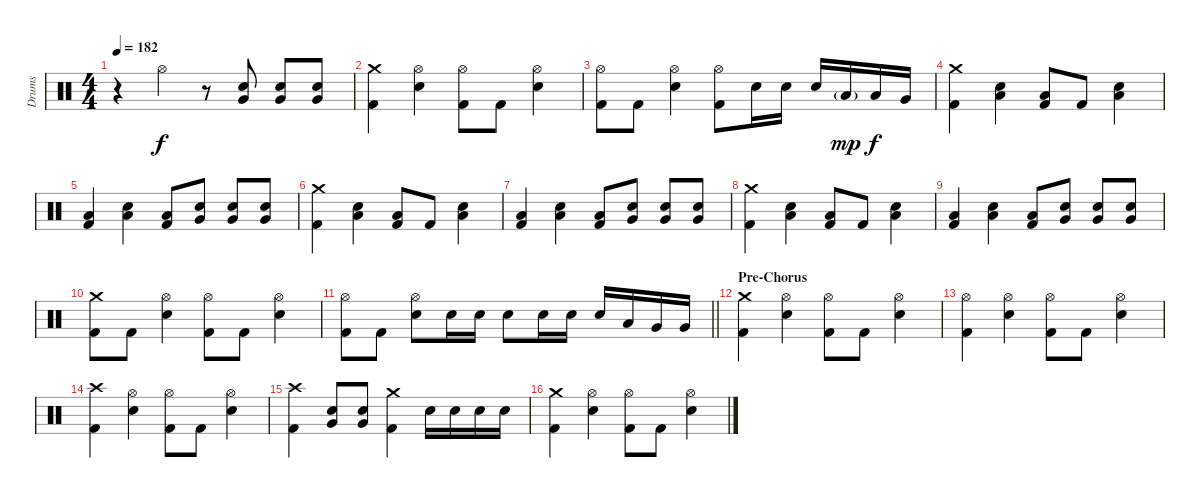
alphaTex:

\track ("Drums" "Drums") {instrument percussion}
\staff {score}
\articulation defaults
\ts (4 4)
\tempo 182
\clef neutral
\ks c
r.4{dy f} "Hi-Hat (open)".4 r.8 ("Very Low Tom (hit)" "Electric Snare (hit)").8 ("Very Low Tom (hit)" "Electric Snare (hit)").8 ("Very Low Tom (hit)" "Electric Snare (hit)").8 |
("Crash medium (hit)" "Kick (hit) 2").4 ("Hi-Hat (open)" "Electric Snare (hit)").4 ("Hi-Hat (open)" "Kick (hit) 2").8 "Kick (hit) 2".8 ("Hi-Hat (open)" "Electric Snare (hit)").4 |
("Hi-Hat (open)" "Kick (hit) 2").8 "Kick (hit) 2".8 ("Hi-Hat (open)" "Electric Snare (hit)").4 ("Hi-Hat (open)" "Kick (hit) 2").8 "Electric Snare (hit)".16 "Electric Snare (hit)".16 "Electric Snare (hit)".16 "Low Tom (hit)"{g}.16{dy mp} "Low Tom (hit)".16{dy f} "Very Low Tom (hit)".16 |
("Crash medium (hit)" "Kick (hit) 2").4 ("Low Floor Tom (hit)" "Electric Snare (hit)").4 ("Low Floor Tom (hit)" "Kick (hit) 2").8 "Kick (hit) 2".8 ("Low Floor Tom (hit)" "Electric Snare (hit)").4 |
("Low Floor Tom (hit)" "Kick (hit) 2").4 ("Low Floor Tom (hit)" "Electric Snare (hit)").4 ("Low Floor Tom (hit)" "Kick (hit) 2").8 ("Very Low Tom (hit)" "Electric Snare (hit)").8 ("Very Low Tom (hit)" "Electric Snare (hit)").8 ("Very Low Tom (hit)" "Electric Snare (hit)").8 |
("Crash medium (hit)" "Kick (hit) 2").4 ("Low Floor Tom (hit)" "Electric Snare (hit)").4 ("Low Floor Tom (hit)" "Kick (hit) 2").8 "Kick (hit) 2".8 ("Low Floor Tom (hit)" "Electric Snare (hit)").4 |
("Low Floor Tom (hit)" "Kick (hit) 2").4 ("Low Floor Tom (hit)" "Electric Snare (hit)").4 ("Low Floor Tom (hit)" "Kick (hit) 2").8 ("Very Low Tom (hit)" "Electric Snare (hit)").8 ("Very Low Tom (hit)" "Electric Snare (hit)").8 ("Very Low Tom (hit)" "Electric Snare (hit)").8 |
("Crash medium (hit)" "Kick (hit) 2").4 ("Low Floor Tom (hit)" "Electric Snare (hit)").4 ("Low Floor Tom (hit)" "Kick (hit) 2").8 "Kick (hit) 2".8 ("Low Floor Tom (hit)" "Electric Snare (hit)").4 |
("Low Floor Tom (hit)" "Kick (hit) 2").4 ("Low Floor Tom (hit)" "Electric Snare (hit)").4 ("Low Floor Tom (hit)" "Kick (hit) 2").8 ("Very Low Tom (hit)" "Electric Snare (hit)").8 ("Very Low Tom (hit)" "Electric Snare (hit)").8 ("Very Low Tom (hit)" "Electric Snare (hit)").8 |
("Crash medium (hit)" "Kick (hit) 2").8 "Kick (hit) 2".8 ("Hi-Hat (open)" "Electric Snare (hit)").4 ("Hi-Hat (open)" "Kick (hit) 2").8 "Kick (hit) 2".8 ("Hi-Hat (open)" "Electric Snare (hit)").4 |
\barLineRight lightlight
("Hi-Hat (open)" "Kick (hit) 2").8 "Kick (hit) 2".8 ("Hi-Hat (open)" "Electric Snare (hit)").8 "Electric Snare (hit)".16 "Electric Snare (hit)".16 "Electric Snare (hit)".8 "Electric Snare (hit)".16 "Electric Snare (hit)".16 "Electric Snare (hit)".16 "Low Tom (hit)".16 "Very Low Tom (hit)".16 "Very Low Tom (hit)".16 |
\section ("" "Pre-Chorus")
("Crash medium (hit)" "Kick (hit) 2").4 ("Hi-Hat (open)" "Electric Snare (hit)").4 ("Hi-Hat (open)" "Kick (hit) 2").8 "Kick (hit) 2".8 ("Hi-Hat (open)" "Electric Snare (hit)").4 |
("Hi-Hat (open)" "Kick (hit) 2").4 ("Hi-Hat (open)" "Electric Snare (hit)").4 ("Hi-Hat (open)" "Kick (hit) 2").8 "Kick (hit) 2".8 ("Hi-Hat (open)" "Electric Snare (hit)").4 |
("Crash high (hit)" "Kick (hit) 2").4 ("Hi-Hat (open)" "Electric Snare (hit)").4 ("Hi-Hat (open)" "Kick (hit) 2").8 "Kick (hit) 2".8 ("Hi-Hat (open)" "Electric Snare (hit)").4 |
("Crash high (hit)" "Kick (hit) 2").4 ("Very Low Tom (hit)" "Electric Snare (hit)").8 ("Very Low Tom (hit)" "Electric Snare (hit)").8 ("Crash medium (hit)" "Kick (hit) 2").4 "Electric Snare (hit)".16 "Electric Snare (hit)".16 "Electric Snare (hit)".16 "Electric Snare (hit)".16 |
("Crash medium (hit)" "Kick (hit) 2").4 ("Hi-Hat (open)" "Electric Snare (hit)").4 ("Hi-Hat (open)" "Kick (hit) 2").8 "Kick (hit) 2".8 ("Hi-Hat (open)" "Electric Snare (hit)").4
